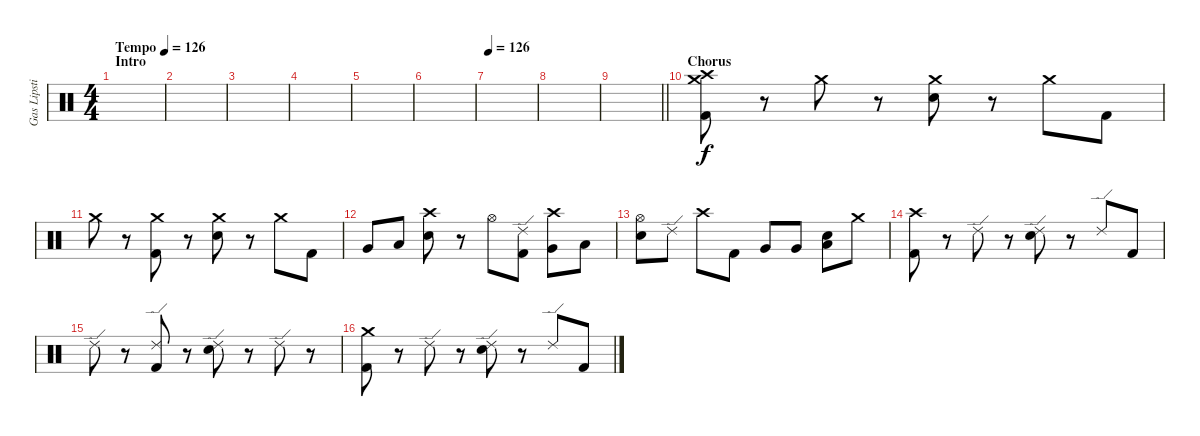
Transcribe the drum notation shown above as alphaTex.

\track ("Gas Lipstick (Drums)" "Gas Lipsti") {instrument percussion}
\staff {score}
\articulation defaults
\ts (4 4)
\section ("" "Intro")
\tempo (126 "Tempo")
\tempo 100
\tempo (126 "Tempo")
\clef neutral
\ks c
|
|
|
|
|
|
\tempo 126
|
|
\barLineRight lightlight
|
\section ("" "Chorus")
("Crash high (hit)" "Crash medium (hit)" "Kick (hit) 2").8 r.8 "Crash medium (hit)".8 r.8 ("Crash medium (hit)" "Snare (hit) 2").8 r.8 "Crash medium (hit)".8 "Kick (hit) 2".8 |
"Crash medium (hit)".8 r.8 ("Crash medium (hit)" "Kick (hit) 2").8 r.8 ("Crash medium (hit)" "Snare (hit) 2").8 r.8 "Crash medium (hit)".8 "Kick (hit) 2".8 |
"Very Low Tom (hit)".8 "Low Floor Tom (hit)".8 ("Crash high (hit)" "Snare (hit) 2").8 r.8 "Hi-Hat (open)".8 ("Ride (edge) 2" "Kick (hit) 2").8 ("Crash high (hit)" "Very Low Tom (hit)").8 "Low Floor Tom (hit)".8 |
("Hi-Hat (open)" "Snare (hit) 2").8 "Ride (edge) 2".8 "Crash high (hit)".8 "Kick (hit) 2".8 "Very Low Tom (hit)".8 "Very Low Tom (hit)".8 ("Low Floor Tom (hit)" "Snare (hit) 2").8 "Crash medium (hit)".8 |
("Crash high (hit)" "Kick (hit) 2").8 r.8 "Ride (edge) 2".8 r.8 ("Ride (edge) 2" "Snare (hit) 2").8 r.8 "Ride (edge) 2".8 "Kick (hit) 2".8 |
"Ride (edge) 2".8 r.8 ("Ride (edge) 2" "Kick (hit) 2").8 r.8 ("Ride (edge) 2" "Snare (hit) 2").8 r.8 "Ride (edge) 2".8 r.8 |
("Crash medium (hit)" "Kick (hit) 2").8 r.8 "Ride (edge) 2".8 r.8 ("Ride (edge) 2" "Snare (hit) 2").8 r.8 "Ride (edge) 2".8 "Kick (hit) 2".8
